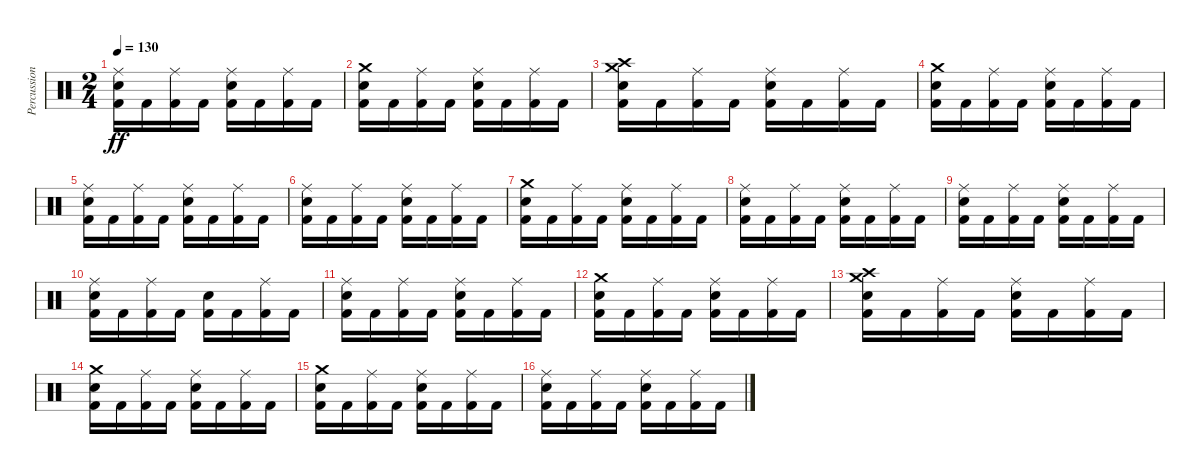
\track ("Percussion" "Percussion") {instrument percussion}
\staff {score}
\articulation defaults
\ts (2 4)
\tempo 130
\clef neutral
\ks c
("Ride (middle)" "Snare (hit) 2" "Kick (hit) 2").16{dy ff} "Kick (hit) 2".16 ("Ride (middle)" "Kick (hit) 2").16 "Kick (hit) 2".16 ("Ride (middle)" "Snare (hit) 2" "Kick (hit) 2").16 "Kick (hit) 2".16 ("Ride (middle)" "Kick (hit) 2").16 "Kick (hit) 2".16 |
("Crash medium (hit)" "Snare (hit) 2" "Kick (hit) 2").16 "Kick (hit) 2".16 ("Ride (middle)" "Kick (hit) 2").16 "Kick (hit) 2".16 ("Ride (middle)" "Snare (hit) 2" "Kick (hit) 2").16 "Kick (hit) 2".16 ("Ride (middle)" "Kick (hit) 2").16 "Kick (hit) 2".16 |
("Crash high (hit)" "Crash medium (hit)" "Snare (hit) 2" "Kick (hit) 2").16 "Kick (hit) 2".16 ("Ride (middle)" "Kick (hit) 2").16 "Kick (hit) 2".16 ("Ride (middle)" "Snare (hit) 2" "Kick (hit) 2").16 "Kick (hit) 2".16 ("Ride (middle)" "Kick (hit) 2").16 "Kick (hit) 2".16 |
("Crash medium (hit)" "Snare (hit) 2" "Kick (hit) 2").16 "Kick (hit) 2".16 ("Ride (middle)" "Kick (hit) 2").16 "Kick (hit) 2".16 ("Ride (middle)" "Snare (hit) 2" "Kick (hit) 2").16 "Kick (hit) 2".16 ("Ride (middle)" "Kick (hit) 2").16 "Kick (hit) 2".16 |
("Ride (middle)" "Snare (hit) 2" "Kick (hit) 2").16 "Kick (hit) 2".16 ("Ride (middle)" "Kick (hit) 2").16 "Kick (hit) 2".16 ("Ride (middle)" "Snare (hit) 2" "Kick (hit) 2").16 "Kick (hit) 2".16 ("Ride (middle)" "Kick (hit) 2").16 "Kick (hit) 2".16 |
("Ride (middle)" "Snare (hit) 2" "Kick (hit) 2").16 "Kick (hit) 2".16 ("Ride (middle)" "Kick (hit) 2").16 "Kick (hit) 2".16 ("Ride (middle)" "Snare (hit) 2" "Kick (hit) 2").16 "Kick (hit) 2".16 ("Ride (middle)" "Kick (hit) 2").16 "Kick (hit) 2".16 |
("Crash medium (hit)" "Snare (hit) 2" "Kick (hit) 2").16 "Kick (hit) 2".16 ("Ride (middle)" "Kick (hit) 2").16 "Kick (hit) 2".16 ("Ride (middle)" "Snare (hit) 2" "Kick (hit) 2").16 "Kick (hit) 2".16 ("Ride (middle)" "Kick (hit) 2").16 "Kick (hit) 2".16 |
("Ride (middle)" "Snare (hit) 2" "Kick (hit) 2").16 "Kick (hit) 2".16 ("Ride (middle)" "Kick (hit) 2").16 "Kick (hit) 2".16 ("Ride (middle)" "Snare (hit) 2" "Kick (hit) 2").16 "Kick (hit) 2".16 ("Ride (middle)" "Kick (hit) 2").16 "Kick (hit) 2".16 |
("Ride (middle)" "Snare (hit) 2" "Kick (hit) 2").16 "Kick (hit) 2".16 ("Ride (middle)" "Kick (hit) 2").16 "Kick (hit) 2".16 ("Ride (middle)" "Snare (hit) 2" "Kick (hit) 2").16 "Kick (hit) 2".16 ("Ride (middle)" "Kick (hit) 2").16 "Kick (hit) 2".16 |
("Ride (middle)" "Snare (hit) 2" "Kick (hit) 2").16 "Kick (hit) 2".16 ("Ride (middle)" "Kick (hit) 2").16 "Kick (hit) 2".16 ("Snare (hit) 2" "Kick (hit) 2").16 "Kick (hit) 2".16 ("Ride (middle)" "Kick (hit) 2").16 "Kick (hit) 2".16 |
("Ride (middle)" "Snare (hit) 2" "Kick (hit) 2").16 "Kick (hit) 2".16 ("Ride (middle)" "Kick (hit) 2").16 "Kick (hit) 2".16 ("Ride (middle)" "Snare (hit) 2" "Kick (hit) 2").16 "Kick (hit) 2".16 ("Ride (middle)" "Kick (hit) 2").16 "Kick (hit) 2".16 |
("Crash medium (hit)" "Snare (hit) 2" "Kick (hit) 2").16 "Kick (hit) 2".16 ("Ride (middle)" "Kick (hit) 2").16 "Kick (hit) 2".16 ("Ride (middle)" "Snare (hit) 2" "Kick (hit) 2").16 "Kick (hit) 2".16 ("Ride (middle)" "Kick (hit) 2").16 "Kick (hit) 2".16 |
("Crash high (hit)" "Crash medium (hit)" "Snare (hit) 2" "Kick (hit) 2").16 "Kick (hit) 2".16 ("Ride (middle)" "Kick (hit) 2").16 "Kick (hit) 2".16 ("Ride (middle)" "Snare (hit) 2" "Kick (hit) 2").16 "Kick (hit) 2".16 ("Ride (middle)" "Kick (hit) 2").16 "Kick (hit) 2".16 |
("Crash medium (hit)" "Snare (hit) 2" "Kick (hit) 2").16 "Kick (hit) 2".16 ("Ride (middle)" "Kick (hit) 2").16 "Kick (hit) 2".16 ("Ride (middle)" "Snare (hit) 2" "Kick (hit) 2").16 "Kick (hit) 2".16 ("Ride (middle)" "Kick (hit) 2").16 "Kick (hit) 2".16 |
("Crash medium (hit)" "Snare (hit) 2" "Kick (hit) 2").16 "Kick (hit) 2".16 ("Ride (middle)" "Kick (hit) 2").16 "Kick (hit) 2".16 ("Ride (middle)" "Snare (hit) 2" "Kick (hit) 2").16 "Kick (hit) 2".16 ("Ride (middle)" "Kick (hit) 2").16 "Kick (hit) 2".16 |
("Ride (middle)" "Snare (hit) 2" "Kick (hit) 2").16 "Kick (hit) 2".16 ("Ride (middle)" "Kick (hit) 2").16 "Kick (hit) 2".16 ("Ride (middle)" "Snare (hit) 2" "Kick (hit) 2").16 "Kick (hit) 2".16 ("Ride (middle)" "Kick (hit) 2").16 "Kick (hit) 2".16
